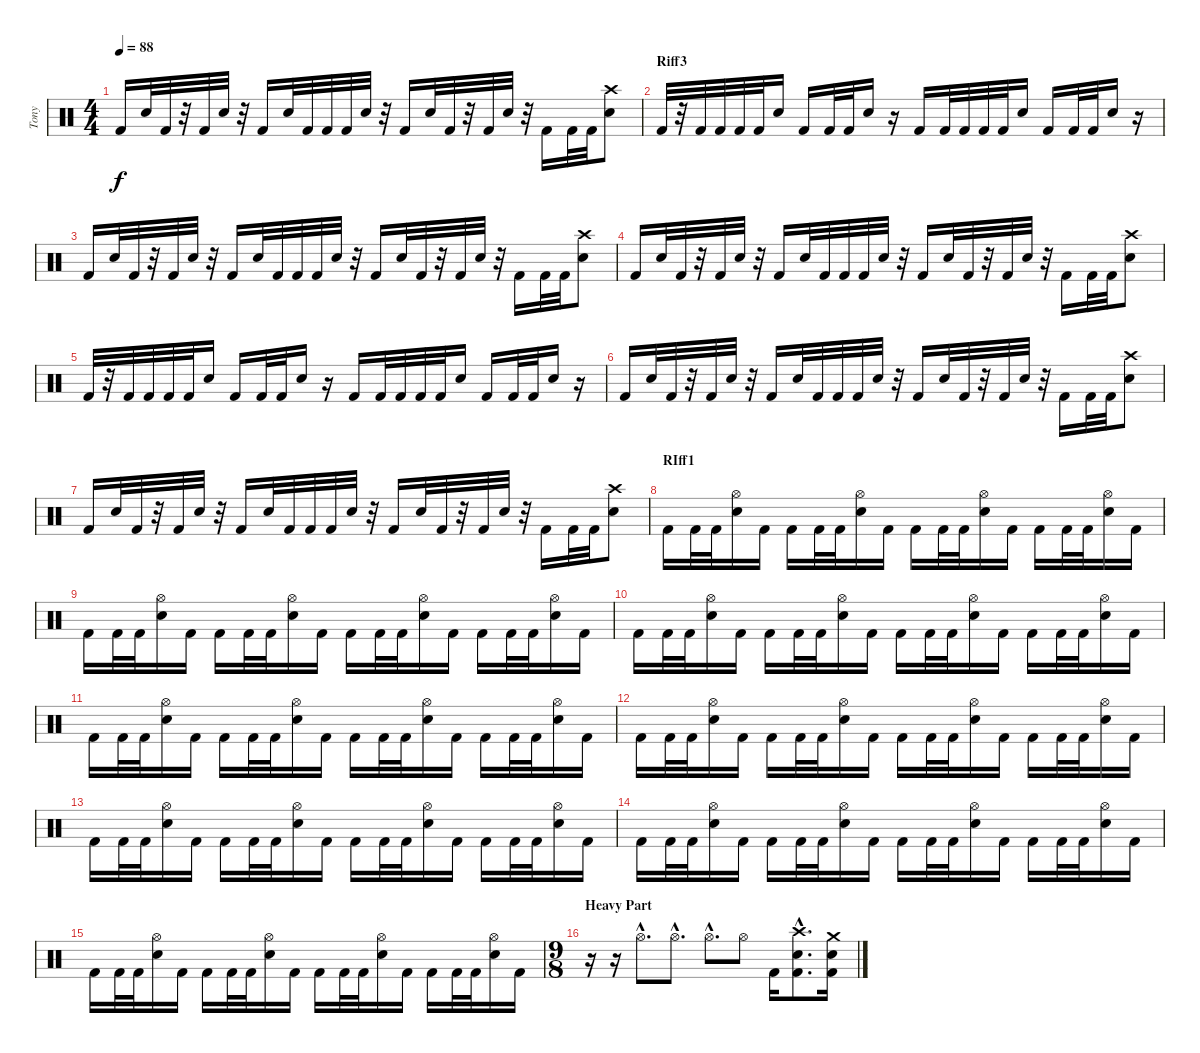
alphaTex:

\track ("Tony" "Tony") {instrument percussion}
\staff {score}
\articulation defaults
\ts (4 4)
\tempo 88
\clef neutral
\ks c "Kick (hit) 2".16{dy f} "Electric Snare (hit)".32 "Kick (hit) 2".32
r.32 "Kick (hit) 2".32 "Electric Snare (hit)".32 r.32 "Kick (hit) 2".16 "Electric Snare (hit)".32 "Kick (hit) 2".32 "Kick (hit) 2".32 "Kick (hit) 2".32 "Electric Snare (hit)".32 r.32 "Kick (hit) 2".16 "Electric Snare (hit)".32 "Kick (hit) 2".32 r.32 "Kick (hit) 2".32 "Electric Snare (hit)".32 r.32 "Kick (hit) 2".16 "Kick (hit) 2".32 "Kick (hit) 2".32 ("Crash high (hit)" "Electric Snare (hit)").8 |
\section ("" "Riff3")
"Kick (hit) 2".32 r.32 "Kick (hit) 2".32 "Kick (hit) 2".32 "Kick (hit) 2".32 "Kick (hit) 2".32 "Electric Snare (hit)".16 "Kick (hit) 2".16 "Kick (hit) 2".32 "Kick (hit) 2".32 "Electric Snare (hit)".16 r.16 "Kick (hit) 2".16 "Kick (hit) 2".32 "Kick (hit) 2".32 "Kick (hit) 2".32 "Kick (hit) 2".32 "Electric Snare (hit)".16 "Kick (hit) 2".16 "Kick (hit) 2".32 "Kick (hit) 2".32 "Electric Snare (hit)".16 r.16 |
"Kick (hit) 2".16 "Electric Snare (hit)".32 "Kick (hit) 2".32 r.32 "Kick (hit) 2".32 "Electric Snare (hit)".32 r.32 "Kick (hit) 2".16 "Electric Snare (hit)".32 "Kick (hit) 2".32 "Kick (hit) 2".32 "Kick (hit) 2".32 "Electric Snare (hit)".32 r.32 "Kick (hit) 2".16 "Electric Snare (hit)".32 "Kick (hit) 2".32 r.32 "Kick (hit) 2".32 "Electric Snare (hit)".32 r.32 "Kick (hit) 2".16 "Kick (hit) 2".32 "Kick (hit) 2".32 ("Crash high (hit)" "Electric Snare (hit)").8 |
"Kick (hit) 2".16 "Electric Snare (hit)".32 "Kick (hit) 2".32 r.32 "Kick (hit) 2".32 "Electric Snare (hit)".32 r.32 "Kick (hit) 2".16 "Electric Snare (hit)".32 "Kick (hit) 2".32 "Kick (hit) 2".32 "Kick (hit) 2".32 "Electric Snare (hit)".32 r.32 "Kick (hit) 2".16 "Electric Snare (hit)".32 "Kick (hit) 2".32 r.32 "Kick (hit) 2".32 "Electric Snare (hit)".32 r.32 "Kick (hit) 2".16 "Kick (hit) 2".32 "Kick (hit) 2".32 ("Crash high (hit)" "Electric Snare (hit)").8 |
"Kick (hit) 2".32 r.32 "Kick (hit) 2".32 "Kick (hit) 2".32 "Kick (hit) 2".32 "Kick (hit) 2".32 "Electric Snare (hit)".16 "Kick (hit) 2".16 "Kick (hit) 2".32 "Kick (hit) 2".32 "Electric Snare (hit)".16 r.16 "Kick (hit) 2".16 "Kick (hit) 2".32 "Kick (hit) 2".32 "Kick (hit) 2".32 "Kick (hit) 2".32 "Electric Snare (hit)".16 "Kick (hit) 2".16 "Kick (hit) 2".32 "Kick (hit) 2".32 "Electric Snare (hit)".16 r.16 |
"Kick (hit) 2".16 "Electric Snare (hit)".32 "Kick (hit) 2".32 r.32 "Kick (hit) 2".32 "Electric Snare (hit)".32 r.32 "Kick (hit) 2".16 "Electric Snare (hit)".32 "Kick (hit) 2".32 "Kick (hit) 2".32 "Kick (hit) 2".32 "Electric Snare (hit)".32 r.32 "Kick (hit) 2".16 "Electric Snare (hit)".32 "Kick (hit) 2".32 r.32 "Kick (hit) 2".32 "Electric Snare (hit)".32 r.32 "Kick (hit) 2".16 "Kick (hit) 2".32 "Kick (hit) 2".32 ("Crash high (hit)" "Electric Snare (hit)").8 |
"Kick (hit) 2".16 "Electric Snare (hit)".32 "Kick (hit) 2".32 r.32 "Kick (hit) 2".32 "Electric Snare (hit)".32 r.32 "Kick (hit) 2".16 "Electric Snare (hit)".32 "Kick (hit) 2".32 "Kick (hit) 2".32 "Kick (hit) 2".32 "Electric Snare (hit)".32 r.32 "Kick (hit) 2".16 "Electric Snare (hit)".32 "Kick (hit) 2".32 r.32 "Kick (hit) 2".32 "Electric Snare (hit)".32 r.32 "Kick (hit) 2".16 "Kick (hit) 2".32 "Kick (hit) 2".32 ("Crash high (hit)" "Electric Snare (hit)").8 |
\section ("" "RIff1")
"Kick (hit) 2".16 "Kick (hit) 2".32 "Kick (hit) 2".32 ("Hi-Hat (open)" "Electric Snare (hit)").16 "Kick (hit) 2".16 "Kick (hit) 2".16 "Kick (hit) 2".32 "Kick (hit) 2".32 ("Hi-Hat (open)" "Electric Snare (hit)").16 "Kick (hit) 2".16 "Kick (hit) 2".16 "Kick (hit) 2".32 "Kick (hit) 2".32 ("Hi-Hat (open)" "Electric Snare (hit)").16 "Kick (hit) 2".16 "Kick (hit) 2".16 "Kick (hit) 2".32 "Kick (hit) 2".32 ("Hi-Hat (open)" "Electric Snare (hit)").16 "Kick (hit) 2".16 |
"Kick (hit) 2".16 "Kick (hit) 2".32 "Kick (hit) 2".32 ("Hi-Hat (open)" "Electric Snare (hit)").16 "Kick (hit) 2".16 "Kick (hit) 2".16 "Kick (hit) 2".32 "Kick (hit) 2".32 ("Hi-Hat (open)" "Electric Snare (hit)").16 "Kick (hit) 2".16 "Kick (hit) 2".16 "Kick (hit) 2".32 "Kick (hit) 2".32 ("Hi-Hat (open)" "Electric Snare (hit)").16 "Kick (hit) 2".16 "Kick (hit) 2".16 "Kick (hit) 2".32 "Kick (hit) 2".32 ("Hi-Hat (open)" "Electric Snare (hit)").16 "Kick (hit) 2".16 |
"Kick (hit) 2".16 "Kick (hit) 2".32 "Kick (hit) 2".32 ("Hi-Hat (open)" "Electric Snare (hit)").16 "Kick (hit) 2".16 "Kick (hit) 2".16 "Kick (hit) 2".32 "Kick (hit) 2".32 ("Hi-Hat (open)" "Electric Snare (hit)").16 "Kick (hit) 2".16 "Kick (hit) 2".16 "Kick (hit) 2".32 "Kick (hit) 2".32 ("Hi-Hat (open)" "Electric Snare (hit)").16 "Kick (hit) 2".16 "Kick (hit) 2".16 "Kick (hit) 2".32 "Kick (hit) 2".32 ("Hi-Hat (open)" "Electric Snare (hit)").16 "Kick (hit) 2".16 |
"Kick (hit) 2".16 "Kick (hit) 2".32 "Kick (hit) 2".32 ("Hi-Hat (open)" "Electric Snare (hit)").16 "Kick (hit) 2".16 "Kick (hit) 2".16 "Kick (hit) 2".32 "Kick (hit) 2".32 ("Hi-Hat (open)" "Electric Snare (hit)").16 "Kick (hit) 2".16 "Kick (hit) 2".16 "Kick (hit) 2".32 "Kick (hit) 2".32 ("Hi-Hat (open)" "Electric Snare (hit)").16 "Kick (hit) 2".16 "Kick (hit) 2".16 "Kick (hit) 2".32 "Kick (hit) 2".32 ("Hi-Hat (open)" "Electric Snare (hit)").16 "Kick (hit) 2".16 |
"Kick (hit) 2".16 "Kick (hit) 2".32 "Kick (hit) 2".32 ("Hi-Hat (open)" "Electric Snare (hit)").16 "Kick (hit) 2".16 "Kick (hit) 2".16 "Kick (hit) 2".32 "Kick (hit) 2".32 ("Hi-Hat (open)" "Electric Snare (hit)").16 "Kick (hit) 2".16 "Kick (hit) 2".16 "Kick (hit) 2".32 "Kick (hit) 2".32 ("Hi-Hat (open)" "Electric Snare (hit)").16 "Kick (hit) 2".16 "Kick (hit) 2".16 "Kick (hit) 2".32 "Kick (hit) 2".32 ("Hi-Hat (open)" "Electric Snare (hit)").16 "Kick (hit) 2".16 |
"Kick (hit) 2".16 "Kick (hit) 2".32 "Kick (hit) 2".32 ("Hi-Hat (open)" "Electric Snare (hit)").16 "Kick (hit) 2".16 "Kick (hit) 2".16 "Kick (hit) 2".32 "Kick (hit) 2".32 ("Hi-Hat (open)" "Electric Snare (hit)").16 "Kick (hit) 2".16 "Kick (hit) 2".16 "Kick (hit) 2".32 "Kick (hit) 2".32 ("Hi-Hat (open)" "Electric Snare (hit)").16 "Kick (hit) 2".16 "Kick (hit) 2".16 "Kick (hit) 2".32 "Kick (hit) 2".32 ("Hi-Hat (open)" "Electric Snare (hit)").16 "Kick (hit) 2".16 |
"Kick (hit) 2".16 "Kick (hit) 2".32 "Kick (hit) 2".32 ("Hi-Hat (open)" "Electric Snare (hit)").16 "Kick (hit) 2".16 "Kick (hit) 2".16 "Kick (hit) 2".32 "Kick (hit) 2".32 ("Hi-Hat (open)" "Electric Snare (hit)").16 "Kick (hit) 2".16 "Kick (hit) 2".16 "Kick (hit) 2".32 "Kick (hit) 2".32 ("Hi-Hat (open)" "Electric Snare (hit)").16 "Kick (hit) 2".16 "Kick (hit) 2".16 "Kick (hit) 2".32 "Kick (hit) 2".32 ("Hi-Hat (open)" "Electric Snare (hit)").16 "Kick (hit) 2".16 |
"Kick (hit) 2".16 "Kick (hit) 2".32 "Kick (hit) 2".32 ("Hi-Hat (open)" "Electric Snare (hit)").16 "Kick (hit) 2".16 "Kick (hit) 2".16 "Kick (hit) 2".32 "Kick (hit) 2".32 ("Hi-Hat (open)" "Electric Snare (hit)").16 "Kick (hit) 2".16 "Kick (hit) 2".16 "Kick (hit) 2".32 "Kick (hit) 2".32 ("Hi-Hat (open)" "Electric Snare (hit)").16 "Kick (hit) 2".16 "Kick (hit) 2".16 "Kick (hit) 2".32 "Kick (hit) 2".32 ("Hi-Hat (open)" "Electric Snare (hit)").16 "Kick (hit) 2".16 |
\ts (9 8)
\section ("" "Heavy Part")
r.16 r.16 "Hi-Hat (open)"{hac}.8{d} "Hi-Hat (open)"{hac}.8{d} "Hi-Hat (open)"{hac}.8{d} "Hi-Hat (open)".8 "Kick (hit) 2".16 ("Crash high (hit)"{hac} "Electric Snare (hit)"{hac} "Kick (hit) 2"{hac}).8{d} ("Crash medium (hit)" "Electric Snare (hit)" "Kick (hit) 2").16
